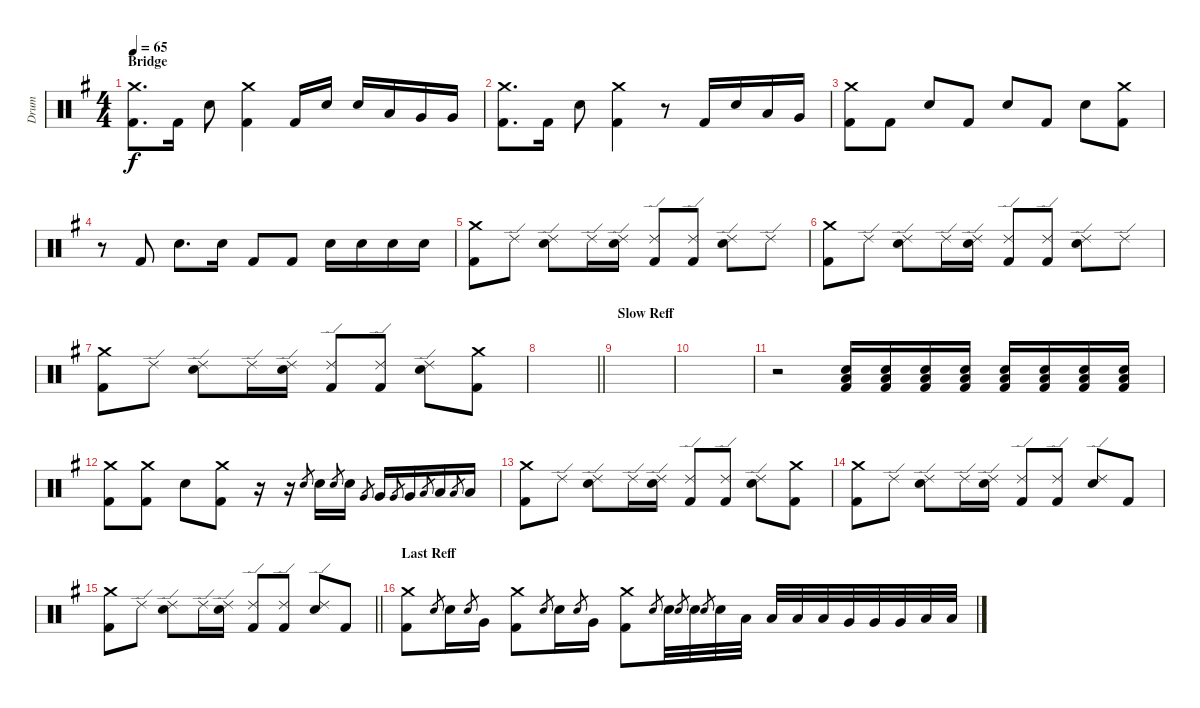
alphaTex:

\track ("Drum" "Drum") {instrument percussion}
\staff {score}
\articulation defaults
\ts (4 4)
\section ("" "Bridge")
\tempo 65
\clef neutral
\ks g
("Crash medium (hit)" "Kick (hit) 2").8{d dy f} "Kick (hit) 2".16 "Electric Snare (hit)".8 ("Crash medium (hit)" "Kick (hit) 2").4 "Kick (hit) 2".16 "Electric Snare (hit)".16 "Electric Snare (hit)".16 "Low Tom (hit)".16 "Very Low Tom (hit)".16 "Very Low Tom (hit)".16 |
("Crash medium (hit)" "Kick (hit) 2").8{d} "Kick (hit) 2".16 "Electric Snare (hit)".8 ("Crash medium (hit)" "Kick (hit) 2").4 r.8 "Kick (hit) 2".16 "Electric Snare (hit)".16 "Low Tom (hit)".16 "Very Low Tom (hit)".16 |
("Crash medium (hit)" "Kick (hit) 2").8 "Kick (hit) 2".8 "Electric Snare (hit)".8 "Kick (hit) 2".8 "Electric Snare (hit)".8 "Kick (hit) 2".8 "Electric Snare (hit)".8 ("Crash medium (hit)" "Kick (hit) 2").8 |
r.8 "Kick (hit) 2".8 "Electric Snare (hit)".8{d} "Electric Snare (hit)".16 "Kick (hit) 2".8 "Kick (hit) 2".8 "Electric Snare (hit)".16 "Electric Snare (hit)".16 "Electric Snare (hit)".16 "Electric Snare (hit)".16 |
("Crash medium (hit)" "Kick (hit) 2").8 "Ride (edge) 2".8 ("Ride (edge) 2" "Electric Snare (hit)").8 "Ride (edge) 2".16 ("Ride (edge) 2" "Electric Snare (hit)").16 ("Ride (edge) 2" "Kick (hit) 2").8 ("Ride (edge) 2" "Kick (hit) 2").8 ("Ride (edge) 2" "Electric Snare (hit)").8 "Ride (edge) 2".8 |
("Crash medium (hit)" "Kick (hit) 2").8 "Ride (edge) 2".8 ("Ride (edge) 2" "Electric Snare (hit)").8 "Ride (edge) 2".16 ("Ride (edge) 2" "Electric Snare (hit)").16 ("Ride (edge) 2" "Kick (hit) 2").8 ("Ride (edge) 2" "Kick (hit) 2").8 ("Ride (edge) 2" "Electric Snare (hit)").8 "Ride (edge) 2".8 |
("Crash medium (hit)" "Kick (hit) 2").8 "Ride (edge) 2".8 ("Ride (edge) 2" "Electric Snare (hit)").8 "Ride (edge) 2".16 ("Ride (edge) 2" "Electric Snare (hit)").16 ("Ride (edge) 2" "Kick (hit) 2").8 ("Ride (edge) 2" "Kick (hit) 2").8 ("Ride (edge) 2" "Electric Snare (hit)").8 ("Crash medium (hit)" "Kick (hit) 2").8 |
\barLineRight lightlight
|
\section ("" "Slow Reff")
|
|
r.2 ("Low Floor Tom (hit)" "Electric Snare (hit)" "Kick (hit) 2").16 ("Low Floor Tom (hit)" "Electric Snare (hit)" "Kick (hit) 2").16 ("Low Floor Tom (hit)" "Electric Snare (hit)" "Kick (hit) 2").16 ("Low Floor Tom (hit)" "Electric Snare (hit)" "Kick (hit) 2").16 ("Low Floor Tom (hit)" "Electric Snare (hit)" "Kick (hit) 2").16 ("Low Floor Tom (hit)" "Electric Snare (hit)" "Kick (hit) 2").16 ("Low Floor Tom (hit)" "Electric Snare (hit)" "Kick (hit) 2").16 ("Low Floor Tom (hit)" "Electric Snare (hit)" "Kick (hit) 2").16 |
("Crash medium (hit)" "Kick (hit) 2").8 ("Crash medium (hit)" "Kick (hit) 2").8 "Electric Snare (hit)".8 ("Crash medium (hit)" "Kick (hit) 2").8 r.16 r.16 "Electric Snare (hit)".8{gr} "Electric Snare (hit)".16 "Electric Snare (hit)".8{gr} "Electric Snare (hit)".16 "Very Low Tom (hit)".8{gr} "Very Low Tom (hit)".16 "Very Low Tom (hit)".8{gr} "Very Low Tom (hit)".16 "Low Floor Tom (hit)".8{gr} "Low Floor Tom (hit)".16 "Low Floor Tom (hit)".8{gr} "Low Floor Tom (hit)".16 |
("Crash medium (hit)" "Kick (hit) 2").8 "Ride (edge) 2".8 ("Ride (edge) 2" "Electric Snare (hit)").8 "Ride (edge) 2".16 ("Ride (edge) 2" "Electric Snare (hit)").16 ("Ride (edge) 2" "Kick (hit) 2").8 ("Ride (edge) 2" "Kick (hit) 2").8 ("Ride (edge) 2" "Electric Snare (hit)").8 ("Crash medium (hit)" "Kick (hit) 2").8 |
("Crash medium (hit)" "Kick (hit) 2").8 "Ride (edge) 2".8 ("Ride (edge) 2" "Electric Snare (hit)").8 "Ride (edge) 2".16 ("Ride (edge) 2" "Electric Snare (hit)").16 ("Ride (edge) 2" "Kick (hit) 2").8 ("Ride (edge) 2" "Kick (hit) 2").8 ("Ride (edge) 2" "Electric Snare (hit)").8 "Kick (hit) 2".8 |
\barLineRight lightlight
("Crash medium (hit)" "Kick (hit) 2").8 "Ride (edge) 2".8 ("Ride (edge) 2" "Electric Snare (hit)").8 "Ride (edge) 2".16 ("Ride (edge) 2" "Electric Snare (hit)").16 ("Ride (edge) 2" "Kick (hit) 2").8 ("Ride (edge) 2" "Kick (hit) 2").8 ("Ride (edge) 2" "Electric Snare (hit)").8 "Kick (hit) 2".8 |
\section ("" "Last Reff")
("Crash medium (hit)" "Kick (hit) 2").8 "Electric Snare (hit)".8{gr} "Electric Snare (hit)".16 "Electric Snare (hit)".8{gr} "Very Low Tom (hit)".16 ("Crash medium (hit)" "Kick (hit) 2").8 "Electric Snare (hit)".8{gr} "Electric Snare (hit)".16 "Electric Snare (hit)".8{gr} "Very Low Tom (hit)".16 ("Crash medium (hit)" "Kick (hit) 2").8 "Electric Snare (hit)".8{gr} "Electric Snare (hit)".32 "Electric Snare (hit)".8{gr} "Electric Snare (hit)".32 "Electric Snare (hit)".8{gr} "Electric Snare (hit)".32 "Low Tom (hit)".32 "Low Tom (hit)".32 "Low Tom (hit)".32 "Low Tom (hit)".32 "Very Low Tom (hit)".32 "Very Low Tom (hit)".32 "Very Low Tom (hit)".32 "Low Floor Tom (hit)".32 "Low Floor Tom (hit)".32
